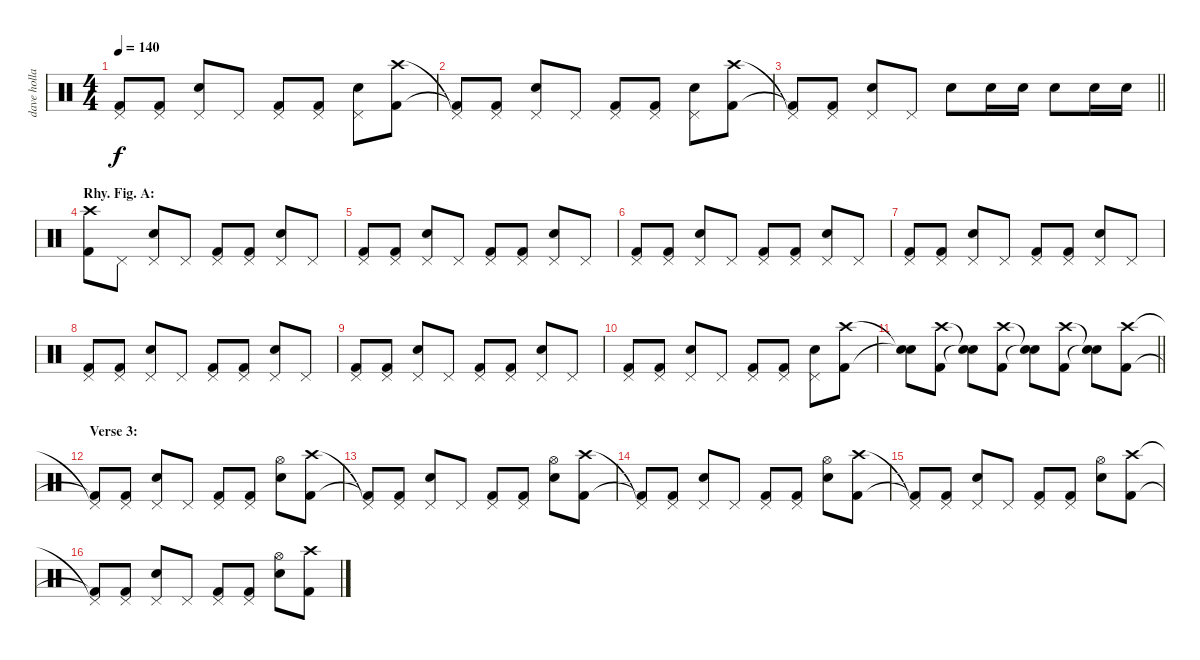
\track ("dave holland" "dave holla") {instrument percussion}
\staff {score}
\articulation defaults
\ts (4 4)
\tempo 140
\clef neutral
\ks c
("Pedal Hi-Hat (hit)"{t} "Kick (hit) 2"{t}).8{dy f} ("Pedal Hi-Hat (hit)" "Kick (hit) 2").8 ("Pedal Hi-Hat (hit)" "Snare (hit) 2").8 "Pedal Hi-Hat (hit)".8 ("Pedal Hi-Hat (hit)" "Kick (hit) 2").8 ("Pedal Hi-Hat (hit)" "Kick (hit) 2").8 ("Pedal Hi-Hat (hit)" "Snare (hit) 2").8 ("Crash high (hit)" "Kick (hit) 2").8 |
("Pedal Hi-Hat (hit)"{t} "Kick (hit) 2"{t}).8 ("Pedal Hi-Hat (hit)" "Kick (hit) 2").8 ("Pedal Hi-Hat (hit)" "Snare (hit) 2").8 "Pedal Hi-Hat (hit)".8 ("Pedal Hi-Hat (hit)" "Kick (hit) 2").8 ("Pedal Hi-Hat (hit)" "Kick (hit) 2").8 ("Pedal Hi-Hat (hit)" "Snare (hit) 2").8 ("Crash high (hit)" "Kick (hit) 2").8 |
\barLineRight lightlight
("Pedal Hi-Hat (hit)"{t} "Kick (hit) 2"{t}).8 ("Pedal Hi-Hat (hit)" "Kick (hit) 2").8 ("Pedal Hi-Hat (hit)" "Snare (hit) 2").8 "Pedal Hi-Hat (hit)".8 "Snare (hit) 2".8 "Snare (hit) 2".16 "Snare (hit) 2".16 "Snare (hit) 2".8 "Snare (hit) 2".16 "Snare (hit) 2".16 |
\section ("" "Rhy. Fig. A:")
("Crash high (hit)" "Kick (hit) 2").8 "Pedal Hi-Hat (hit)".8 ("Pedal Hi-Hat (hit)" "Snare (hit) 2").8 "Pedal Hi-Hat (hit)".8 ("Pedal Hi-Hat (hit)" "Kick (hit) 2").8 ("Pedal Hi-Hat (hit)" "Kick (hit) 2").8 ("Pedal Hi-Hat (hit)" "Snare (hit) 2").8 "Pedal Hi-Hat (hit)".8 |
("Pedal Hi-Hat (hit)" "Kick (hit) 2").8 ("Pedal Hi-Hat (hit)" "Kick (hit) 2").8 ("Pedal Hi-Hat (hit)" "Snare (hit) 2").8 "Pedal Hi-Hat (hit)".8 ("Pedal Hi-Hat (hit)" "Kick (hit) 2").8 ("Pedal Hi-Hat (hit)" "Kick (hit) 2").8 ("Pedal Hi-Hat (hit)" "Snare (hit) 2").8 "Pedal Hi-Hat (hit)".8 |
("Pedal Hi-Hat (hit)" "Kick (hit) 2").8 ("Pedal Hi-Hat (hit)" "Kick (hit) 2").8 ("Pedal Hi-Hat (hit)" "Snare (hit) 2").8 "Pedal Hi-Hat (hit)".8 ("Pedal Hi-Hat (hit)" "Kick (hit) 2").8 ("Pedal Hi-Hat (hit)" "Kick (hit) 2").8 ("Pedal Hi-Hat (hit)" "Snare (hit) 2").8 "Pedal Hi-Hat (hit)".8 |
("Pedal Hi-Hat (hit)" "Kick (hit) 2").8 ("Pedal Hi-Hat (hit)" "Kick (hit) 2").8 ("Pedal Hi-Hat (hit)" "Snare (hit) 2").8 "Pedal Hi-Hat (hit)".8 ("Pedal Hi-Hat (hit)" "Kick (hit) 2").8 ("Pedal Hi-Hat (hit)" "Kick (hit) 2").8 ("Pedal Hi-Hat (hit)" "Snare (hit) 2").8 "Pedal Hi-Hat (hit)".8 |
("Pedal Hi-Hat (hit)" "Kick (hit) 2").8 ("Pedal Hi-Hat (hit)" "Kick (hit) 2").8 ("Pedal Hi-Hat (hit)" "Snare (hit) 2").8 "Pedal Hi-Hat (hit)".8 ("Pedal Hi-Hat (hit)" "Kick (hit) 2").8 ("Pedal Hi-Hat (hit)" "Kick (hit) 2").8 ("Pedal Hi-Hat (hit)" "Snare (hit) 2").8 "Pedal Hi-Hat (hit)".8 |
("Pedal Hi-Hat (hit)" "Kick (hit) 2").8 ("Pedal Hi-Hat (hit)" "Kick (hit) 2").8 ("Pedal Hi-Hat (hit)" "Snare (hit) 2").8 "Pedal Hi-Hat (hit)".8 ("Pedal Hi-Hat (hit)" "Kick (hit) 2").8 ("Pedal Hi-Hat (hit)" "Kick (hit) 2").8 ("Pedal Hi-Hat (hit)" "Snare (hit) 2").8 "Pedal Hi-Hat (hit)".8 |
("Pedal Hi-Hat (hit)" "Kick (hit) 2").8 ("Pedal Hi-Hat (hit)" "Kick (hit) 2").8 ("Pedal Hi-Hat (hit)" "Snare (hit) 2").8 "Pedal Hi-Hat (hit)".8 ("Pedal Hi-Hat (hit)" "Kick (hit) 2").8 ("Pedal Hi-Hat (hit)" "Kick (hit) 2").8 ("Pedal Hi-Hat (hit)" "Snare (hit) 2").8 ("Crash high (hit)" "Kick (hit) 2").8 |
\barLineRight lightlight
("Snare (hit)"{t} "Snare (hit)"{t}).8 ("Crash high (hit)" "Kick (hit) 2").8 ("Snare (hit)"{t} "Snare (hit)"{t}).8 ("Crash high (hit)" "Kick (hit) 2").8 ("Snare (hit)"{t} "Snare (hit)"{t}).8 ("Crash high (hit)" "Kick (hit) 2").8 ("Snare (hit)"{t} "Snare (hit)"{t}).8 ("Crash high (hit)" "Kick (hit) 2").8 |
\section ("" "Verse 3:")
("Pedal Hi-Hat (hit)"{t} "Kick (hit) 2"{t}).8 ("Pedal Hi-Hat (hit)" "Kick (hit) 2").8 ("Pedal Hi-Hat (hit)" "Snare (hit) 2").8 "Pedal Hi-Hat (hit)".8 ("Pedal Hi-Hat (hit)" "Kick (hit) 2").8 ("Pedal Hi-Hat (hit)" "Kick (hit) 2").8 ("Hi-Hat (open)" "Snare (hit) 2").8 ("Crash high (hit)" "Kick (hit) 2").8 |
("Pedal Hi-Hat (hit)"{t} "Kick (hit) 2"{t}).8 ("Pedal Hi-Hat (hit)" "Kick (hit) 2").8 ("Pedal Hi-Hat (hit)" "Snare (hit) 2").8 "Pedal Hi-Hat (hit)".8 ("Pedal Hi-Hat (hit)" "Kick (hit) 2").8 ("Pedal Hi-Hat (hit)" "Kick (hit) 2").8 ("Hi-Hat (open)" "Snare (hit) 2").8 ("Crash high (hit)" "Kick (hit) 2").8 |
("Pedal Hi-Hat (hit)"{t} "Kick (hit) 2"{t}).8 ("Pedal Hi-Hat (hit)" "Kick (hit) 2").8 ("Pedal Hi-Hat (hit)" "Snare (hit) 2").8 "Pedal Hi-Hat (hit)".8 ("Pedal Hi-Hat (hit)" "Kick (hit) 2").8 ("Pedal Hi-Hat (hit)" "Kick (hit) 2").8 ("Hi-Hat (open)" "Snare (hit) 2").8 ("Crash high (hit)" "Kick (hit) 2").8 |
("Pedal Hi-Hat (hit)"{t} "Kick (hit) 2"{t}).8 ("Pedal Hi-Hat (hit)" "Kick (hit) 2").8 ("Pedal Hi-Hat (hit)" "Snare (hit) 2").8 "Pedal Hi-Hat (hit)".8 ("Pedal Hi-Hat (hit)" "Kick (hit) 2").8 ("Pedal Hi-Hat (hit)" "Kick (hit) 2").8 ("Hi-Hat (open)" "Snare (hit) 2").8 ("Crash high (hit)" "Kick (hit) 2").8 |
("Pedal Hi-Hat (hit)"{t} "Kick (hit) 2"{t}).8 ("Pedal Hi-Hat (hit)" "Kick (hit) 2").8 ("Pedal Hi-Hat (hit)" "Snare (hit) 2").8 "Pedal Hi-Hat (hit)".8 ("Pedal Hi-Hat (hit)" "Kick (hit) 2").8 ("Pedal Hi-Hat (hit)" "Kick (hit) 2").8 ("Hi-Hat (open)" "Snare (hit) 2").8 ("Crash high (hit)" "Kick (hit) 2").8
